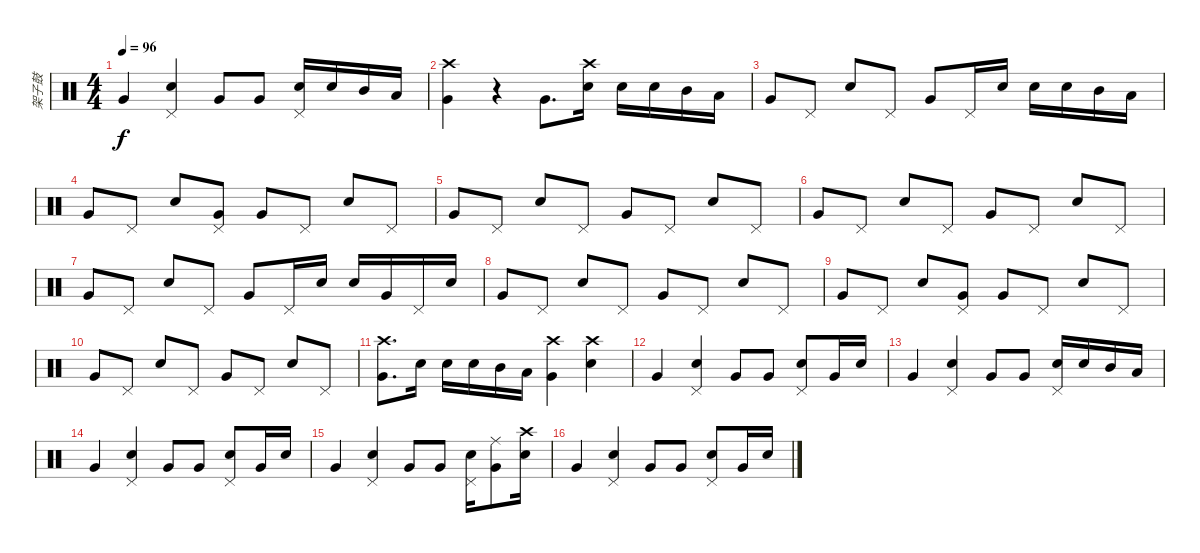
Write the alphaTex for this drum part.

\track ("架子鼓" "架子鼓") {instrument percussion}
\staff {score}
\articulation defaults
\ts (4 4)
\tempo 96
\clef neutral
\ks c "Very Low Tom (hit)".4{dy f}
("Pedal Hi-Hat (hit)" "Snare (hit) 2").4 "Very Low Tom (hit)".8 "Very Low Tom (hit)".8 ("Pedal Hi-Hat (hit)" "Snare (hit) 2").16 "Snare (hit) 2".16 "Mid Tom (hit)".16 "Low Tom (hit)".16 |
("Crash high (hit)" "Very Low Tom (hit)").4 r.4 "Very Low Tom (hit)".8{d} ("Crash high (hit)" "Snare (hit) 2").16 "Snare (hit) 2".16 "Snare (hit) 2".16 "Mid Tom (hit)".16 "Low Tom (hit)".16 |
"Very Low Tom (hit)".8 "Pedal Hi-Hat (hit)".8 "Snare (hit) 2".8 "Pedal Hi-Hat (hit)".8 "Very Low Tom (hit)".8 "Pedal Hi-Hat (hit)".16 "Snare (hit) 2".16 "Snare (hit) 2".16 "Snare (hit) 2".16 "Mid Tom (hit)".16 "Low Tom (hit)".16 |
"Very Low Tom (hit)".8 "Pedal Hi-Hat (hit)".8 "Snare (hit) 2".8 ("Pedal Hi-Hat (hit)" "Very Low Tom (hit)").8 "Very Low Tom (hit)".8 "Pedal Hi-Hat (hit)".8 "Snare (hit) 2".8 "Pedal Hi-Hat (hit)".8 |
"Very Low Tom (hit)".8 "Pedal Hi-Hat (hit)".8 "Snare (hit) 2".8 "Pedal Hi-Hat (hit)".8 "Very Low Tom (hit)".8 "Pedal Hi-Hat (hit)".8 "Snare (hit) 2".8 "Pedal Hi-Hat (hit)".8 |
"Very Low Tom (hit)".8 "Pedal Hi-Hat (hit)".8 "Snare (hit) 2".8 "Pedal Hi-Hat (hit)".8 "Very Low Tom (hit)".8 "Pedal Hi-Hat (hit)".8 "Snare (hit) 2".8 "Pedal Hi-Hat (hit)".8 |
"Very Low Tom (hit)".8 "Pedal Hi-Hat (hit)".8 "Snare (hit) 2".8 "Pedal Hi-Hat (hit)".8 "Very Low Tom (hit)".8 "Pedal Hi-Hat (hit)".16 "Snare (hit) 2".16 "Snare (hit) 2".16 "Very Low Tom (hit)".16 "Pedal Hi-Hat (hit)".16 "Snare (hit) 2".16 |
"Very Low Tom (hit)".8 "Pedal Hi-Hat (hit)".8 "Snare (hit) 2".8 "Pedal Hi-Hat (hit)".8 "Very Low Tom (hit)".8 "Pedal Hi-Hat (hit)".8 "Snare (hit) 2".8 "Pedal Hi-Hat (hit)".8 |
"Very Low Tom (hit)".8 "Pedal Hi-Hat (hit)".8 "Snare (hit) 2".8 ("Pedal Hi-Hat (hit)" "Very Low Tom (hit)").8 "Very Low Tom (hit)".8 "Pedal Hi-Hat (hit)".8 "Snare (hit) 2".8 "Pedal Hi-Hat (hit)".8 |
"Very Low Tom (hit)".8 "Pedal Hi-Hat (hit)".8 "Snare (hit) 2".8 "Pedal Hi-Hat (hit)".8 "Very Low Tom (hit)".8 "Pedal Hi-Hat (hit)".8 "Snare (hit) 2".8 "Pedal Hi-Hat (hit)".8 |
("Crash high (hit)" "Very Low Tom (hit)").8{d} "Snare (hit) 2".16 "Snare (hit) 2".16 "Snare (hit) 2".16 "Mid Tom (hit)".16 "Low Tom (hit)".16 ("Crash high (hit)" "Very Low Tom (hit)").4 ("Crash high (hit)" "Snare (hit) 2").4 |
"Very Low Tom (hit)".4 ("Pedal Hi-Hat (hit)" "Snare (hit) 2").4 "Very Low Tom (hit)".8 "Very Low Tom (hit)".8 ("Pedal Hi-Hat (hit)" "Snare (hit) 2").8 "Very Low Tom (hit)".16 "Snare (hit) 2".16 |
"Very Low Tom (hit)".4 ("Pedal Hi-Hat (hit)" "Snare (hit) 2").4 "Very Low Tom (hit)".8 "Very Low Tom (hit)".8 ("Pedal Hi-Hat (hit)" "Snare (hit) 2").16 "Snare (hit) 2".16 "Mid Tom (hit)".16 "Low Tom (hit)".16 |
"Very Low Tom (hit)".4 ("Pedal Hi-Hat (hit)" "Snare (hit) 2").4 "Very Low Tom (hit)".8 "Very Low Tom (hit)".8 ("Pedal Hi-Hat (hit)" "Snare (hit) 2").8 "Very Low Tom (hit)".16 "Snare (hit) 2".16 |
"Very Low Tom (hit)".4 ("Pedal Hi-Hat (hit)" "Snare (hit) 2").4 "Very Low Tom (hit)".8 "Very Low Tom (hit)".8 ("Pedal Hi-Hat (hit)" "Snare (hit) 2").16 ("Ride (middle)" "Very Low Tom (hit)").8 ("Crash high (hit)" "Snare (hit) 2").16 |
"Very Low Tom (hit)".4 ("Pedal Hi-Hat (hit)" "Snare (hit) 2").4 "Very Low Tom (hit)".8 "Very Low Tom (hit)".8 ("Pedal Hi-Hat (hit)" "Snare (hit) 2").8 "Very Low Tom (hit)".16 "Snare (hit) 2".16
